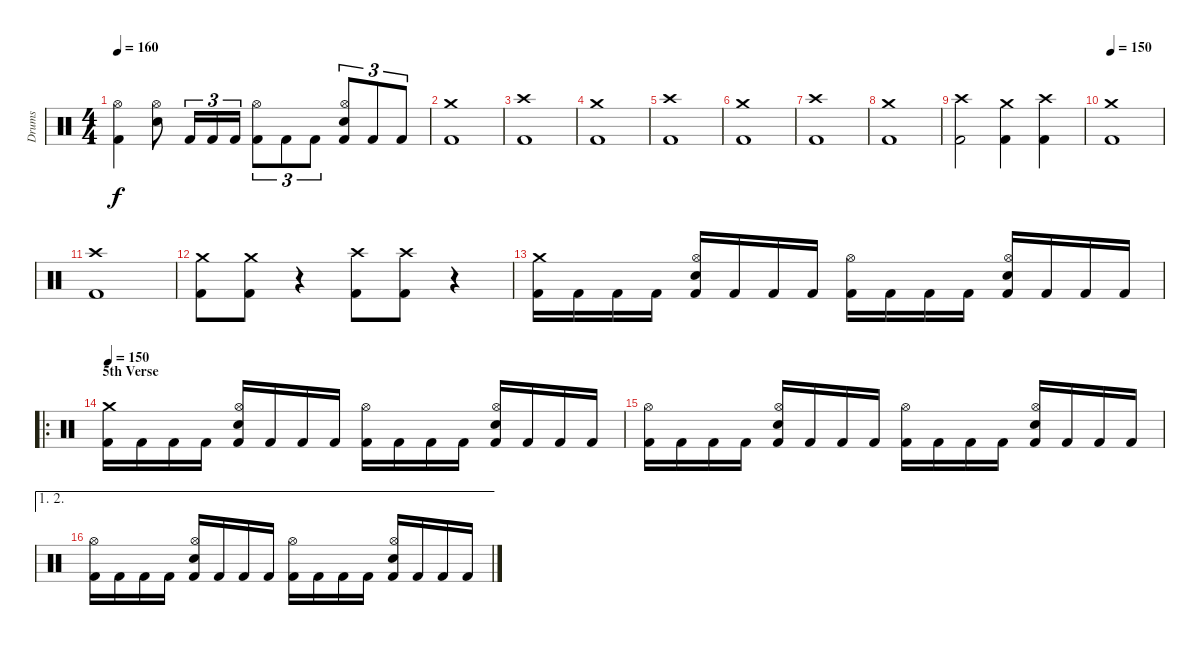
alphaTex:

\track ("Drums" "Drums") {instrument percussion}
\staff {score}
\articulation defaults
\ts (4 4)
\tempo 160
\clef neutral
\ks c
("Kick (hit) 2" "Hi-Hat (open)").4{dy f} ("Electric Snare (hit)" "Hi-Hat (open)").8 "Kick (hit) 2".16{tu (3 2)} "Kick (hit) 2".16{tu (3 2)} "Kick (hit) 2".16{tu (3 2)} ("Kick (hit) 2" "Hi-Hat (open)").8{tu (3 2)} "Kick (hit) 2".8{tu (3 2)} "Kick (hit) 2".8{tu (3 2)} ("Kick (hit) 2" "Electric Snare (hit)" "Hi-Hat (open)").8{tu (3 2)} "Kick (hit) 2".8{tu (3 2)} "Kick (hit) 2".8{tu (3 2)} |
("Kick (hit) 2" "Crash medium (hit)").1 |
("Kick (hit) 2" "Crash high (hit)").1 |
("Kick (hit) 2" "Crash medium (hit)").1 |
("Kick (hit) 2" "Crash high (hit)").1 |
("Kick (hit) 2" "Crash medium (hit)").1 |
("Kick (hit) 2" "Crash high (hit)").1 |
("Kick (hit) 2" "Crash medium (hit)").1 |
("Kick (hit) 2" "Crash high (hit)").2 ("Kick (hit) 2" "Crash medium (hit)").4 ("Kick (hit) 2" "Crash high (hit)").4 |
\tempo 150
("Kick (hit) 2" "Crash medium (hit)").1 |
("Kick (hit) 2" "Crash high (hit)").1 |
("Kick (hit) 2" "Crash medium (hit)").8 ("Kick (hit) 2" "Crash medium (hit)").8 r.4 ("Kick (hit) 2" "Crash high (hit)").8 ("Kick (hit) 2" "Crash high (hit)").8 r.4 |
("Kick (hit) 2" "Crash medium (hit)").16 "Kick (hit) 2".16 "Kick (hit) 2".16 "Kick (hit) 2".16 ("Kick (hit) 2" "Electric Snare (hit)" "Hi-Hat (open)").16 "Kick (hit) 2".16 "Kick (hit) 2".16 "Kick (hit) 2".16 ("Kick (hit) 2" "Hi-Hat (open)").16 "Kick (hit) 2".16 "Kick (hit) 2".16 "Kick (hit) 2".16 ("Kick (hit) 2" "Electric Snare (hit)" "Hi-Hat (open)").16 "Kick (hit) 2".16 "Kick (hit) 2".16 "Kick (hit) 2".16 |
\ro
\section ("" "5th Verse")
\tempo 150
("Kick (hit) 2" "Crash medium (hit)").16 "Kick (hit) 2".16 "Kick (hit) 2".16 "Kick (hit) 2".16 ("Kick (hit) 2" "Electric Snare (hit)" "Hi-Hat (open)").16 "Kick (hit) 2".16 "Kick (hit) 2".16 "Kick (hit) 2".16 ("Kick (hit) 2" "Hi-Hat (open)").16 "Kick (hit) 2".16 "Kick (hit) 2".16 "Kick (hit) 2".16 ("Kick (hit) 2" "Electric Snare (hit)" "Hi-Hat (open)").16 "Kick (hit) 2".16 "Kick (hit) 2".16 "Kick (hit) 2".16 |
("Kick (hit) 2" "Hi-Hat (open)").16 "Kick (hit) 2".16 "Kick (hit) 2".16 "Kick (hit) 2".16 ("Kick (hit) 2" "Electric Snare (hit)" "Hi-Hat (open)").16 "Kick (hit) 2".16 "Kick (hit) 2".16 "Kick (hit) 2".16 ("Kick (hit) 2" "Hi-Hat (open)").16 "Kick (hit) 2".16 "Kick (hit) 2".16 "Kick (hit) 2".16 ("Kick (hit) 2" "Electric Snare (hit)" "Hi-Hat (open)").16 "Kick (hit) 2".16 "Kick (hit) 2".16 "Kick (hit) 2".16 |
\ae (1 2)
("Kick (hit) 2" "Hi-Hat (open)").16 "Kick (hit) 2".16 "Kick (hit) 2".16 "Kick (hit) 2".16 ("Kick (hit) 2" "Electric Snare (hit)" "Hi-Hat (open)").16 "Kick (hit) 2".16 "Kick (hit) 2".16 "Kick (hit) 2".16 ("Kick (hit) 2" "Hi-Hat (open)").16 "Kick (hit) 2".16 "Kick (hit) 2".16 "Kick (hit) 2".16 ("Kick (hit) 2" "Electric Snare (hit)" "Hi-Hat (open)").16 "Kick (hit) 2".16 "Kick (hit) 2".16 "Kick (hit) 2".16
